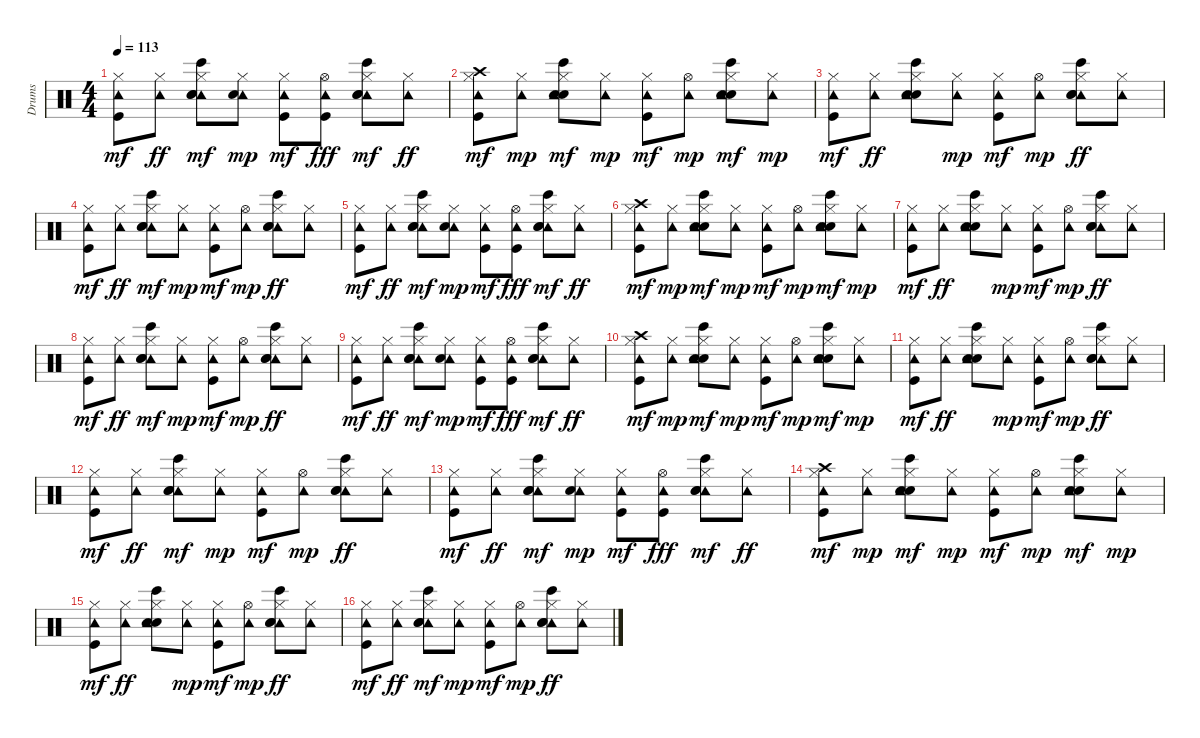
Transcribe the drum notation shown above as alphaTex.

\track ("Drums" "Drums") {instrument percussion}
\staff {score}
\articulation defaults
\ts (4 4)
\tempo 113
\clef neutral
\ks c
("Kick (hit)" "Hi-Hat (closed)" "Tambourine (hit)").8{dy mf} ("Tambourine (hit)" "Hi-Hat (closed)").8{dy ff} ("Hi-Hat (closed)" "Tambourine (hit)" "Bongo High (hit)" "Snare (hit) 2" "Hand Clap (hit)").8{dy mf} ("Hi-Hat (closed)" "Tambourine (hit)" "Snare (hit) 2").8{dy mp} ("Kick (hit)" "Hi-Hat (closed)" "Tambourine (hit)").8{dy mf} ("Hi-Hat (open)" "Tambourine (hit)" "Kick (hit)").8{dy fff} ("Hi-Hat (closed)" "Tambourine (hit)" "Bongo High (hit)" "Snare (hit) 2" "Hand Clap (hit)").8{dy mf} ("Tambourine (hit)" "Hi-Hat (closed)").8{dy ff} |
("Kick (hit)" "Hi-Hat (closed)" "Crash high (hit)" "Tambourine (hit)").8{dy mf} ("Tambourine (hit)" "Hi-Hat (closed)").8{dy mp} ("Hi-Hat (closed)" "Bongo High (hit)" "Snare (hit) 2" "Hand Clap (hit)" "Tambourine (hit)").8{dy mf} ("Hi-Hat (closed)" "Tambourine (hit)").8{dy mp} ("Kick (hit)" "Hi-Hat (closed)" "Tambourine (hit)").8{dy mf} ("Tambourine (hit)" "Hi-Hat (open)").8{dy mp} ("Hi-Hat (closed)" "Bongo High (hit)" "Snare (hit) 2" "Hand Clap (hit)" "Tambourine (hit)").8{dy mf} ("Hi-Hat (closed)" "Tambourine (hit)").8{dy mp} |
("Kick (hit)" "Hi-Hat (closed)" "Tambourine (hit)").8{dy mf} ("Tambourine (hit)" "Hi-Hat (closed)").8{dy ff} ("Bongo High (hit)" "Snare (hit) 2" "Hand Clap (hit)" "Tambourine (hit)" "Hi-Hat (closed)").8 ("Hi-Hat (closed)" "Tambourine (hit)").8{dy mp} ("Kick (hit)" "Hi-Hat (closed)" "Tambourine (hit)").8{dy mf} ("Tambourine (hit)" "Hi-Hat (open)").8{dy mp} ("Tambourine (hit)" "Bongo High (hit)" "Snare (hit) 2" "Hand Clap (hit)" "Hi-Hat (closed)").8{dy ff} ("Tambourine (hit)" "Hi-Hat (closed)").8 |
("Kick (hit)" "Hi-Hat (closed)" "Tambourine (hit)").8{dy mf} ("Tambourine (hit)" "Hi-Hat (closed)").8{dy ff} ("Tambourine (hit)" "Hi-Hat (closed)" "Bongo High (hit)" "Snare (hit) 2" "Hand Clap (hit)").8{dy mf} ("Hi-Hat (closed)" "Tambourine (hit)").8{dy mp} ("Kick (hit)" "Hi-Hat (closed)" "Tambourine (hit)").8{dy mf} ("Tambourine (hit)" "Hi-Hat (open)").8{dy mp} ("Tambourine (hit)" "Bongo High (hit)" "Snare (hit) 2" "Hand Clap (hit)" "Hi-Hat (closed)").8{dy ff} ("Tambourine (hit)" "Hi-Hat (closed)").8 |
("Kick (hit)" "Hi-Hat (closed)" "Tambourine (hit)").8{dy mf} ("Tambourine (hit)" "Hi-Hat (closed)").8{dy ff} ("Hi-Hat (closed)" "Tambourine (hit)" "Bongo High (hit)" "Snare (hit) 2" "Hand Clap (hit)").8{dy mf} ("Hi-Hat (closed)" "Tambourine (hit)" "Snare (hit) 2").8{dy mp} ("Kick (hit)" "Hi-Hat (closed)" "Tambourine (hit)").8{dy mf} ("Hi-Hat (open)" "Tambourine (hit)" "Kick (hit)").8{dy fff} ("Hi-Hat (closed)" "Tambourine (hit)" "Bongo High (hit)" "Snare (hit) 2" "Hand Clap (hit)").8{dy mf} ("Tambourine (hit)" "Hi-Hat (closed)").8{dy ff} |
("Kick (hit)" "Hi-Hat (closed)" "Crash high (hit)" "Tambourine (hit)").8{dy mf} ("Tambourine (hit)" "Hi-Hat (closed)").8{dy mp} ("Hi-Hat (closed)" "Bongo High (hit)" "Snare (hit) 2" "Hand Clap (hit)" "Tambourine (hit)").8{dy mf} ("Hi-Hat (closed)" "Tambourine (hit)").8{dy mp} ("Kick (hit)" "Hi-Hat (closed)" "Tambourine (hit)").8{dy mf} ("Tambourine (hit)" "Hi-Hat (open)").8{dy mp} ("Hi-Hat (closed)" "Bongo High (hit)" "Snare (hit) 2" "Hand Clap (hit)" "Tambourine (hit)").8{dy mf} ("Hi-Hat (closed)" "Tambourine (hit)").8{dy mp} |
("Kick (hit)" "Hi-Hat (closed)" "Tambourine (hit)").8{dy mf} ("Tambourine (hit)" "Hi-Hat (closed)").8{dy ff} ("Bongo High (hit)" "Snare (hit) 2" "Hand Clap (hit)" "Tambourine (hit)" "Hi-Hat (closed)").8 ("Hi-Hat (closed)" "Tambourine (hit)").8{dy mp} ("Kick (hit)" "Hi-Hat (closed)" "Tambourine (hit)").8{dy mf} ("Tambourine (hit)" "Hi-Hat (open)").8{dy mp} ("Tambourine (hit)" "Bongo High (hit)" "Snare (hit) 2" "Hand Clap (hit)" "Hi-Hat (closed)").8{dy ff} ("Tambourine (hit)" "Hi-Hat (closed)").8 |
("Kick (hit)" "Hi-Hat (closed)" "Tambourine (hit)").8{dy mf} ("Tambourine (hit)" "Hi-Hat (closed)").8{dy ff} ("Tambourine (hit)" "Hi-Hat (closed)" "Bongo High (hit)" "Snare (hit) 2" "Hand Clap (hit)").8{dy mf} ("Hi-Hat (closed)" "Tambourine (hit)").8{dy mp} ("Kick (hit)" "Hi-Hat (closed)" "Tambourine (hit)").8{dy mf} ("Tambourine (hit)" "Hi-Hat (open)").8{dy mp} ("Tambourine (hit)" "Bongo High (hit)" "Snare (hit) 2" "Hand Clap (hit)" "Hi-Hat (closed)").8{dy ff} ("Tambourine (hit)" "Hi-Hat (closed)").8 |
("Kick (hit)" "Hi-Hat (closed)" "Tambourine (hit)").8{dy mf} ("Tambourine (hit)" "Hi-Hat (closed)").8{dy ff} ("Hi-Hat (closed)" "Tambourine (hit)" "Bongo High (hit)" "Snare (hit) 2" "Hand Clap (hit)").8{dy mf} ("Hi-Hat (closed)" "Tambourine (hit)" "Snare (hit) 2").8{dy mp} ("Kick (hit)" "Hi-Hat (closed)" "Tambourine (hit)").8{dy mf} ("Hi-Hat (open)" "Tambourine (hit)" "Kick (hit)").8{dy fff} ("Hi-Hat (closed)" "Tambourine (hit)" "Bongo High (hit)" "Snare (hit) 2" "Hand Clap (hit)").8{dy mf} ("Tambourine (hit)" "Hi-Hat (closed)").8{dy ff} |
("Kick (hit)" "Hi-Hat (closed)" "Crash high (hit)" "Tambourine (hit)").8{dy mf} ("Tambourine (hit)" "Hi-Hat (closed)").8{dy mp} ("Hi-Hat (closed)" "Bongo High (hit)" "Snare (hit) 2" "Hand Clap (hit)" "Tambourine (hit)").8{dy mf} ("Hi-Hat (closed)" "Tambourine (hit)").8{dy mp} ("Kick (hit)" "Hi-Hat (closed)" "Tambourine (hit)").8{dy mf} ("Tambourine (hit)" "Hi-Hat (open)").8{dy mp} ("Hi-Hat (closed)" "Bongo High (hit)" "Snare (hit) 2" "Hand Clap (hit)" "Tambourine (hit)").8{dy mf} ("Hi-Hat (closed)" "Tambourine (hit)").8{dy mp} |
("Kick (hit)" "Hi-Hat (closed)" "Tambourine (hit)").8{dy mf} ("Tambourine (hit)" "Hi-Hat (closed)").8{dy ff} ("Bongo High (hit)" "Snare (hit) 2" "Hand Clap (hit)" "Tambourine (hit)" "Hi-Hat (closed)").8 ("Hi-Hat (closed)" "Tambourine (hit)").8{dy mp} ("Kick (hit)" "Hi-Hat (closed)" "Tambourine (hit)").8{dy mf} ("Tambourine (hit)" "Hi-Hat (open)").8{dy mp} ("Tambourine (hit)" "Bongo High (hit)" "Snare (hit) 2" "Hand Clap (hit)" "Hi-Hat (closed)").8{dy ff} ("Tambourine (hit)" "Hi-Hat (closed)").8 |
("Kick (hit)" "Hi-Hat (closed)" "Tambourine (hit)").8{dy mf} ("Tambourine (hit)" "Hi-Hat (closed)").8{dy ff} ("Tambourine (hit)" "Hi-Hat (closed)" "Bongo High (hit)" "Snare (hit) 2" "Hand Clap (hit)").8{dy mf} ("Hi-Hat (closed)" "Tambourine (hit)").8{dy mp} ("Kick (hit)" "Hi-Hat (closed)" "Tambourine (hit)").8{dy mf} ("Tambourine (hit)" "Hi-Hat (open)").8{dy mp} ("Tambourine (hit)" "Bongo High (hit)" "Snare (hit) 2" "Hand Clap (hit)" "Hi-Hat (closed)").8{dy ff} ("Tambourine (hit)" "Hi-Hat (closed)").8 |
("Kick (hit)" "Hi-Hat (closed)" "Tambourine (hit)").8{dy mf} ("Tambourine (hit)" "Hi-Hat (closed)").8{dy ff} ("Hi-Hat (closed)" "Tambourine (hit)" "Bongo High (hit)" "Snare (hit) 2" "Hand Clap (hit)").8{dy mf} ("Hi-Hat (closed)" "Tambourine (hit)" "Snare (hit) 2").8{dy mp} ("Kick (hit)" "Hi-Hat (closed)" "Tambourine (hit)").8{dy mf} ("Hi-Hat (open)" "Tambourine (hit)" "Kick (hit)").8{dy fff} ("Hi-Hat (closed)" "Tambourine (hit)" "Bongo High (hit)" "Snare (hit) 2" "Hand Clap (hit)").8{dy mf} ("Tambourine (hit)" "Hi-Hat (closed)").8{dy ff} |
("Kick (hit)" "Hi-Hat (closed)" "Crash high (hit)" "Tambourine (hit)").8{dy mf} ("Tambourine (hit)" "Hi-Hat (closed)").8{dy mp} ("Hi-Hat (closed)" "Bongo High (hit)" "Snare (hit) 2" "Hand Clap (hit)" "Tambourine (hit)").8{dy mf} ("Hi-Hat (closed)" "Tambourine (hit)").8{dy mp} ("Kick (hit)" "Hi-Hat (closed)" "Tambourine (hit)").8{dy mf} ("Tambourine (hit)" "Hi-Hat (open)").8{dy mp} ("Hi-Hat (closed)" "Bongo High (hit)" "Snare (hit) 2" "Hand Clap (hit)" "Tambourine (hit)").8{dy mf} ("Hi-Hat (closed)" "Tambourine (hit)").8{dy mp} |
("Kick (hit)" "Hi-Hat (closed)" "Tambourine (hit)").8{dy mf} ("Tambourine (hit)" "Hi-Hat (closed)").8{dy ff} ("Bongo High (hit)" "Snare (hit) 2" "Hand Clap (hit)" "Tambourine (hit)" "Hi-Hat (closed)").8 ("Hi-Hat (closed)" "Tambourine (hit)").8{dy mp} ("Kick (hit)" "Hi-Hat (closed)" "Tambourine (hit)").8{dy mf} ("Tambourine (hit)" "Hi-Hat (open)").8{dy mp} ("Tambourine (hit)" "Bongo High (hit)" "Snare (hit) 2" "Hand Clap (hit)" "Hi-Hat (closed)").8{dy ff} ("Tambourine (hit)" "Hi-Hat (closed)").8 |
("Kick (hit)" "Hi-Hat (closed)" "Tambourine (hit)").8{dy mf} ("Tambourine (hit)" "Hi-Hat (closed)").8{dy ff} ("Tambourine (hit)" "Hi-Hat (closed)" "Bongo High (hit)" "Snare (hit) 2" "Hand Clap (hit)").8{dy mf} ("Hi-Hat (closed)" "Tambourine (hit)").8{dy mp} ("Kick (hit)" "Hi-Hat (closed)" "Tambourine (hit)").8{dy mf} ("Tambourine (hit)" "Hi-Hat (open)").8{dy mp} ("Tambourine (hit)" "Bongo High (hit)" "Snare (hit) 2" "Hand Clap (hit)" "Hi-Hat (closed)").8{dy ff} ("Tambourine (hit)" "Hi-Hat (closed)").8
